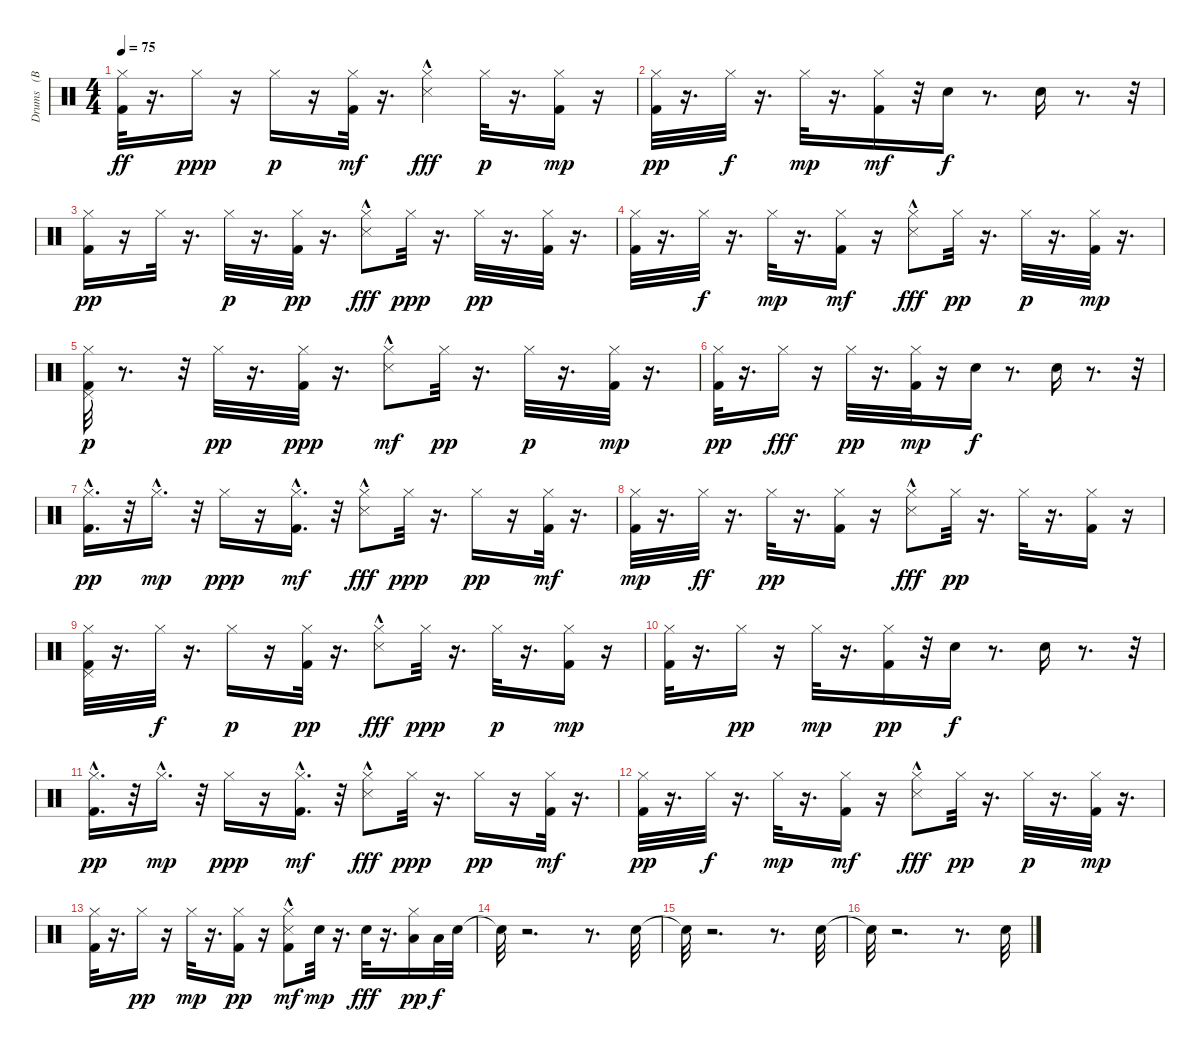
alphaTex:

\track ("Drums   (BB)" "Drums   (B") {instrument percussion}
\staff {score}
\articulation defaults
\ts (4 4)
\tempo 75
\clef neutral
\ks c
("Hi-Hat (closed)" "Kick (hit) 2").32{dy ff} r.16{d} "Hi-Hat (closed)".16{dy ppp} r.16 "Hi-Hat (closed)".16{dy p} r.16 ("Hi-Hat (closed)" "Kick (hit) 2").32{dy mf} r.16{d} ("Snare (side stick) 3"{hac} "Hi-Hat (closed)").4{dy fff} "Hi-Hat (closed)".32{dy p} r.16{d} ("Hi-Hat (closed)" "Kick (hit) 2").16{dy mp} r.16 |
("Hi-Hat (closed)" "Kick (hit) 2").32{dy pp} r.16{d} "Hi-Hat (closed)".32{dy f} r.16{d} "Hi-Hat (closed)".32{dy mp} r.16{d} ("Hi-Hat (closed)" "Kick (hit) 2").16{dy mf} r.32 "Snare (hit) 2".16{dy f} r.8{d} "Snare (hit) 2".16 r.8{d} r.32 |
("Kick (hit) 2" "Hi-Hat (closed)").16{dy pp} r.16 "Hi-Hat (closed)".32 r.16{d} "Hi-Hat (closed)".32{dy p} r.16{d} ("Kick (hit) 2" "Hi-Hat (closed)").32{dy pp} r.16{d} ("Snare (side stick) 3"{hac} "Hi-Hat (closed)").8{dy fff} "Hi-Hat (closed)".32{dy ppp} r.16{d} "Hi-Hat (closed)".32{dy pp} r.16{d} ("Kick (hit) 2" "Hi-Hat (closed)").32 r.16{d} |
("Hi-Hat (closed)" "Kick (hit) 2").32 r.16{d} "Hi-Hat (closed)".32{dy f} r.16{d} "Hi-Hat (closed)".32{dy mp} r.16{d} ("Hi-Hat (closed)" "Kick (hit) 2").16{dy mf} r.16 ("Snare (side stick) 3"{hac} "Hi-Hat (closed)").8{dy fff} "Hi-Hat (closed)".32{dy pp} r.16{d} "Hi-Hat (closed)".32{dy p} r.16{d} ("Hi-Hat (closed)" "Kick (hit) 2").32{dy mp} r.16{d} |
("Pedal Hi-Hat (hit)" "Kick (hit) 2" "Hi-Hat (closed)").32{dy p} r.8{d} r.32 "Hi-Hat (closed)".32{dy pp} r.16{d} ("Kick (hit) 2" "Hi-Hat (closed)").32{dy ppp} r.16{d} ("Hi-Hat (closed)" "Snare (side stick) 3"{hac}).8{dy mf} "Hi-Hat (closed)".32{dy pp} r.16{d} "Hi-Hat (closed)".32{dy p} r.16{d} ("Hi-Hat (closed)" "Kick (hit) 2").32{dy mp} r.16{d} |
("Kick (hit) 2" "Hi-Hat (closed)").32{dy pp} r.16{d} "Hi-Hat (closed)".16{dy fff} r.16 "Hi-Hat (closed)".32{dy pp} r.16{d} ("Hi-Hat (closed)" "Kick (hit) 2").32{dy mp} r.16 "Snare (hit) 2".16{dy f} r.8{d} "Snare (hit) 2".16 r.8{d} r.32 |
("Kick (hit) 2"{hac} "Hi-Hat (closed)").16{d dy pp} r.32 "Hi-Hat (closed)"{hac}.16{d dy mp} r.32 "Hi-Hat (closed)".16{dy ppp} r.16 ("Hi-Hat (closed)"{hac} "Kick (hit) 2").16{d dy mf} r.32 ("Snare (side stick) 3"{hac} "Hi-Hat (closed)").8{dy fff} "Hi-Hat (closed)".32{dy ppp} r.16{d} "Hi-Hat (closed)".16{dy pp} r.16 ("Hi-Hat (closed)" "Kick (hit) 2").32{dy mf} r.16{d} |
("Hi-Hat (closed)" "Kick (hit) 2").32{dy mp} r.16{d} "Hi-Hat (closed)".32{dy ff} r.16{d} "Hi-Hat (closed)".32{dy pp} r.16{d} ("Kick (hit) 2" "Hi-Hat (closed)").16 r.16 ("Snare (side stick) 3"{hac} "Hi-Hat (closed)").8{dy fff} "Hi-Hat (closed)".32{dy pp} r.16{d} "Hi-Hat (closed)".32 r.16{d} ("Kick (hit) 2" "Hi-Hat (closed)").16 r.16 |
("Pedal Hi-Hat (hit)" "Kick (hit) 2" "Hi-Hat (closed)").32 r.16{d} "Hi-Hat (closed)".32{dy f} r.16{d} "Hi-Hat (closed)".16{dy p} r.16 ("Kick (hit) 2" "Hi-Hat (closed)").32{dy pp} r.16{d} ("Snare (side stick) 3"{hac} "Hi-Hat (closed)").8{dy fff} "Hi-Hat (closed)".32{dy ppp} r.16{d} "Hi-Hat (closed)".32{dy p} r.16{d} ("Hi-Hat (closed)" "Kick (hit) 2").16{dy mp} r.16 |
("Hi-Hat (closed)" "Kick (hit) 2").32 r.16{d} "Hi-Hat (closed)".16{dy pp} r.16 "Hi-Hat (closed)".32{dy mp} r.16{d} ("Kick (hit) 2" "Hi-Hat (closed)").16{dy pp} r.32 "Snare (hit) 2".16{dy f} r.8{d} "Snare (hit) 2".16 r.8{d} r.32 |
("Kick (hit) 2"{hac} "Hi-Hat (closed)").16{d dy pp} r.32 "Hi-Hat (closed)"{hac}.16{d dy mp} r.32 "Hi-Hat (closed)".16{dy ppp} r.16 ("Hi-Hat (closed)"{hac} "Kick (hit) 2").16{d dy mf} r.32 ("Snare (side stick) 3"{hac} "Hi-Hat (closed)").8{dy fff} "Hi-Hat (closed)".32{dy ppp} r.16{d} "Hi-Hat (closed)".16{dy pp} r.16 ("Hi-Hat (closed)" "Kick (hit) 2").32{dy mf} r.16{d} |
("Hi-Hat (closed)" "Kick (hit) 2").32{dy pp} r.16{d} "Hi-Hat (closed)".32{dy f} r.16{d} "Hi-Hat (closed)".32{dy mp} r.16{d} ("Hi-Hat (closed)" "Kick (hit) 2").16{dy mf} r.16 ("Snare (side stick) 3"{hac} "Hi-Hat (closed)").8{dy fff} "Hi-Hat (closed)".32{dy pp} r.16{d} "Hi-Hat (closed)".32{dy p} r.16{d} ("Hi-Hat (closed)" "Kick (hit) 2").32{dy mp} r.16{d} |
("Hi-Hat (closed)" "Kick (hit) 2").32 r.16{d} "Hi-Hat (closed)".16{dy pp} r.16 "Hi-Hat (closed)".32{dy mp} r.16{d} ("Kick (hit) 2" "Hi-Hat (closed)").16{dy pp} r.16 ("Hi-Hat (closed)" "Snare (side stick) 3"{hac} "Kick (hit) 2").8{dy mf} "Snare (hit) 2".32{dy mp} r.16{d} "Snare (hit) 2".32{dy fff} r.16{d} ("Low Tom (hit)" "Hi-Hat (closed)").16{dy pp} "Low Tom (hit)".32{dy f} "Snare (hit) 2".32 |
"Snare (hit)"{t}.32 r.2{d} r.8{d} "Snare (hit) 2".32 |
"Snare (hit)"{t}.32 r.2{d} r.8{d} "Snare (hit) 2".32 |
"Snare (hit)"{t}.32 r.2{d} r.8{d} "Snare (hit) 2".32
